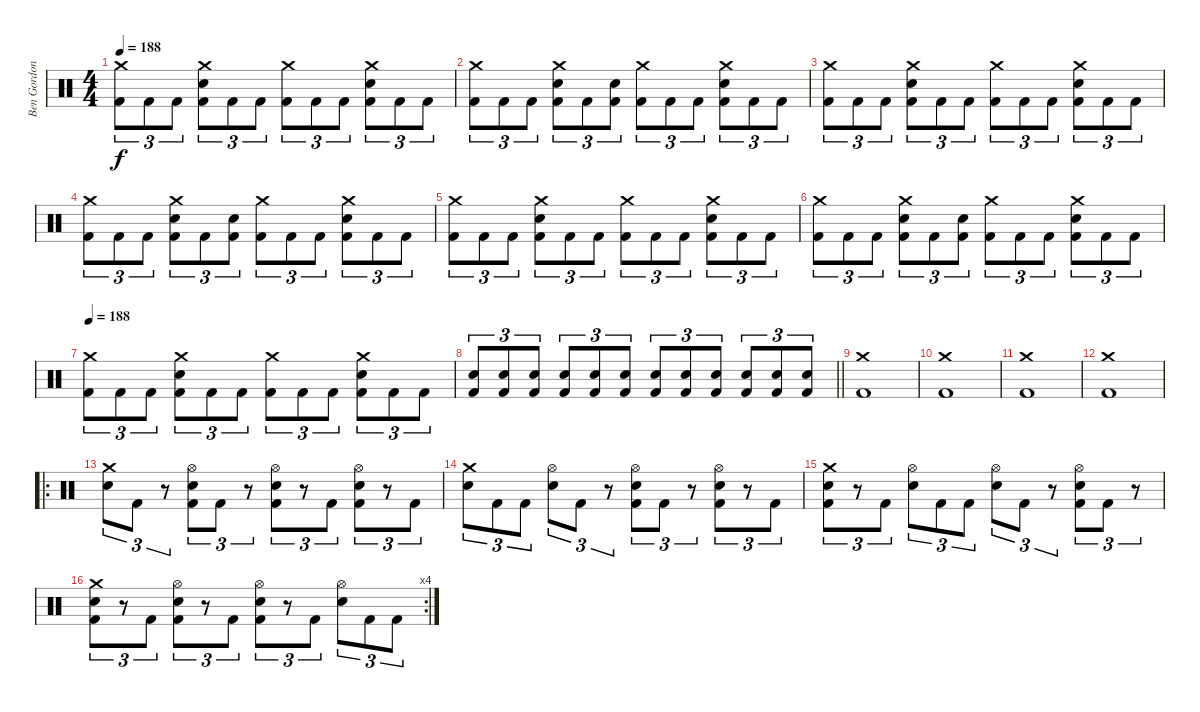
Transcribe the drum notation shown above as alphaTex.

\track ("Ben Gordon" "Ben Gordon") {instrument percussion}
\staff {score}
\articulation defaults
\ts (4 4)
\tempo 188
\clef neutral
\ks c
("Crash medium (hit)" "Kick (hit) 2").8{tu (3 2) dy f} "Kick (hit) 2".8{tu (3 2)} "Kick (hit) 2".8{tu (3 2)} ("Electric Snare (hit)" "Crash medium (hit)" "Kick (hit) 2").8{tu (3 2)} "Kick (hit) 2".8{tu (3 2)} "Kick (hit) 2".8{tu (3 2)} ("Crash medium (hit)" "Kick (hit) 2").8{tu (3 2)} "Kick (hit) 2".8{tu (3 2)} "Kick (hit) 2".8{tu (3 2)} ("Electric Snare (hit)" "Crash medium (hit)" "Kick (hit) 2").8{tu (3 2)} "Kick (hit) 2".8{tu (3 2)} "Kick (hit) 2".8{tu (3 2)} |
("Crash medium (hit)" "Kick (hit) 2").8{tu (3 2)} "Kick (hit) 2".8{tu (3 2)} "Kick (hit) 2".8{tu (3 2)} ("Electric Snare (hit)" "Crash medium (hit)" "Kick (hit) 2").8{tu (3 2)} "Kick (hit) 2".8{tu (3 2)} ("Electric Snare (hit)" "Kick (hit) 2").8{tu (3 2)} ("Crash medium (hit)" "Kick (hit) 2").8{tu (3 2)} "Kick (hit) 2".8{tu (3 2)} "Kick (hit) 2".8{tu (3 2)} ("Electric Snare (hit)" "Crash medium (hit)" "Kick (hit) 2").8{tu (3 2)} "Kick (hit) 2".8{tu (3 2)} "Kick (hit) 2".8{tu (3 2)} |
("Crash medium (hit)" "Kick (hit) 2").8{tu (3 2)} "Kick (hit) 2".8{tu (3 2)} "Kick (hit) 2".8{tu (3 2)} ("Electric Snare (hit)" "Crash medium (hit)" "Kick (hit) 2").8{tu (3 2)} "Kick (hit) 2".8{tu (3 2)} "Kick (hit) 2".8{tu (3 2)} ("Crash medium (hit)" "Kick (hit) 2").8{tu (3 2)} "Kick (hit) 2".8{tu (3 2)} "Kick (hit) 2".8{tu (3 2)} ("Electric Snare (hit)" "Crash medium (hit)" "Kick (hit) 2").8{tu (3 2)} "Kick (hit) 2".8{tu (3 2)} "Kick (hit) 2".8{tu (3 2)} |
("Crash medium (hit)" "Kick (hit) 2").8{tu (3 2)} "Kick (hit) 2".8{tu (3 2)} "Kick (hit) 2".8{tu (3 2)} ("Electric Snare (hit)" "Crash medium (hit)" "Kick (hit) 2").8{tu (3 2)} "Kick (hit) 2".8{tu (3 2)} ("Electric Snare (hit)" "Kick (hit) 2").8{tu (3 2)} ("Crash medium (hit)" "Kick (hit) 2").8{tu (3 2)} "Kick (hit) 2".8{tu (3 2)} "Kick (hit) 2".8{tu (3 2)} ("Electric Snare (hit)" "Crash medium (hit)" "Kick (hit) 2").8{tu (3 2)} "Kick (hit) 2".8{tu (3 2)} "Kick (hit) 2".8{tu (3 2)} |
("Crash medium (hit)" "Kick (hit) 2").8{tu (3 2)} "Kick (hit) 2".8{tu (3 2)} "Kick (hit) 2".8{tu (3 2)} ("Electric Snare (hit)" "Crash medium (hit)" "Kick (hit) 2").8{tu (3 2)} "Kick (hit) 2".8{tu (3 2)} "Kick (hit) 2".8{tu (3 2)} ("Crash medium (hit)" "Kick (hit) 2").8{tu (3 2)} "Kick (hit) 2".8{tu (3 2)} "Kick (hit) 2".8{tu (3 2)} ("Electric Snare (hit)" "Crash medium (hit)" "Kick (hit) 2").8{tu (3 2)} "Kick (hit) 2".8{tu (3 2)} "Kick (hit) 2".8{tu (3 2)} |
("Crash medium (hit)" "Kick (hit) 2").8{tu (3 2)} "Kick (hit) 2".8{tu (3 2)} "Kick (hit) 2".8{tu (3 2)} ("Electric Snare (hit)" "Crash medium (hit)" "Kick (hit) 2").8{tu (3 2)} "Kick (hit) 2".8{tu (3 2)} ("Electric Snare (hit)" "Kick (hit) 2").8{tu (3 2)} ("Crash medium (hit)" "Kick (hit) 2").8{tu (3 2)} "Kick (hit) 2".8{tu (3 2)} "Kick (hit) 2".8{tu (3 2)} ("Electric Snare (hit)" "Crash medium (hit)" "Kick (hit) 2").8{tu (3 2)} "Kick (hit) 2".8{tu (3 2)} "Kick (hit) 2".8{tu (3 2)} |
\tempo 188
("Crash medium (hit)" "Kick (hit) 2").8{tu (3 2)} "Kick (hit) 2".8{tu (3 2)} "Kick (hit) 2".8{tu (3 2)} ("Electric Snare (hit)" "Crash medium (hit)" "Kick (hit) 2").8{tu (3 2)} "Kick (hit) 2".8{tu (3 2)} "Kick (hit) 2".8{tu (3 2)} ("Crash medium (hit)" "Kick (hit) 2").8{tu (3 2)} "Kick (hit) 2".8{tu (3 2)} "Kick (hit) 2".8{tu (3 2)} ("Electric Snare (hit)" "Crash medium (hit)" "Kick (hit) 2").8{tu (3 2)} "Kick (hit) 2".8{tu (3 2)} "Kick (hit) 2".8{tu (3 2)} |
\barLineRight lightlight
("Electric Snare (hit)" "Kick (hit) 2").8{tu (3 2)} ("Electric Snare (hit)" "Kick (hit) 2").8{tu (3 2)} ("Electric Snare (hit)" "Kick (hit) 2").8{tu (3 2)} ("Electric Snare (hit)" "Kick (hit) 2").8{tu (3 2)} ("Electric Snare (hit)" "Kick (hit) 2").8{tu (3 2)} ("Electric Snare (hit)" "Kick (hit) 2").8{tu (3 2)} ("Electric Snare (hit)" "Kick (hit) 2").8{tu (3 2)} ("Electric Snare (hit)" "Kick (hit) 2").8{tu (3 2)} ("Electric Snare (hit)" "Kick (hit) 2").8{tu (3 2)} ("Electric Snare (hit)" "Kick (hit) 2").8{tu (3 2)} ("Electric Snare (hit)" "Kick (hit) 2").8{tu (3 2)} ("Electric Snare (hit)" "Kick (hit) 2").8{tu (3 2)} |
("Crash medium (hit)" "Kick (hit) 2").1 |
("Crash medium (hit)" "Kick (hit) 2").1 |
("Crash medium (hit)" "Kick (hit) 2").1 |
("Crash medium (hit)" "Kick (hit) 2").1 |
\ro
("Electric Snare (hit)" "Crash medium (hit)").8{tu (3 2)} "Kick (hit) 2".8{tu (3 2)} r.8{tu (3 2)} ("Electric Snare (hit)" "Hi-Hat (open)" "Kick (hit) 2").8{tu (3 2)} "Kick (hit) 2".8{tu (3 2)} r.8{tu (3 2)} ("Electric Snare (hit)" "Hi-Hat (open)" "Kick (hit) 2").8{tu (3 2)} r.8{tu (3 2)} "Kick (hit) 2".8{tu (3 2)} ("Electric Snare (hit)" "Hi-Hat (open)" "Kick (hit) 2").8{tu (3 2)} r.8{tu (3 2)} "Kick (hit) 2".8{tu (3 2)} |
("Electric Snare (hit)" "Crash medium (hit)").8{tu (3 2)} "Kick (hit) 2".8{tu (3 2)} "Kick (hit) 2".8{tu (3 2)} ("Electric Snare (hit)" "Hi-Hat (open)").8{tu (3 2)} "Kick (hit) 2".8{tu (3 2)} r.8{tu (3 2)} ("Electric Snare (hit)" "Hi-Hat (open)" "Kick (hit) 2").8{tu (3 2)} "Kick (hit) 2".8{tu (3 2)} r.8{tu (3 2)} ("Electric Snare (hit)" "Hi-Hat (open)" "Kick (hit) 2").8{tu (3 2)} r.8{tu (3 2)} "Kick (hit) 2".8{tu (3 2)} |
("Electric Snare (hit)" "Crash medium (hit)" "Kick (hit) 2").8{tu (3 2)} r.8{tu (3 2)} "Kick (hit) 2".8{tu (3 2)} ("Electric Snare (hit)" "Hi-Hat (open)").8{tu (3 2)} "Kick (hit) 2".8{tu (3 2)} "Kick (hit) 2".8{tu (3 2)} ("Electric Snare (hit)" "Hi-Hat (open)").8{tu (3 2)} "Kick (hit) 2".8{tu (3 2)} r.8{tu (3 2)} ("Electric Snare (hit)" "Hi-Hat (open)" "Kick (hit) 2").8{tu (3 2)} "Kick (hit) 2".8{tu (3 2)} r.8{tu (3 2)} |
\rc 4
("Electric Snare (hit)" "Crash medium (hit)" "Kick (hit) 2").8{tu (3 2)} r.8{tu (3 2)} "Kick (hit) 2".8{tu (3 2)} ("Electric Snare (hit)" "Hi-Hat (open)" "Kick (hit) 2").8{tu (3 2)} r.8{tu (3 2)} "Kick (hit) 2".8{tu (3 2)} ("Electric Snare (hit)" "Hi-Hat (open)" "Kick (hit) 2").8{tu (3 2)} r.8{tu (3 2)} "Kick (hit) 2".8{tu (3 2)} ("Electric Snare (hit)" "Hi-Hat (open)").8{tu (3 2)} "Kick (hit) 2".8{tu (3 2)} "Kick (hit) 2".8{tu (3 2)}
